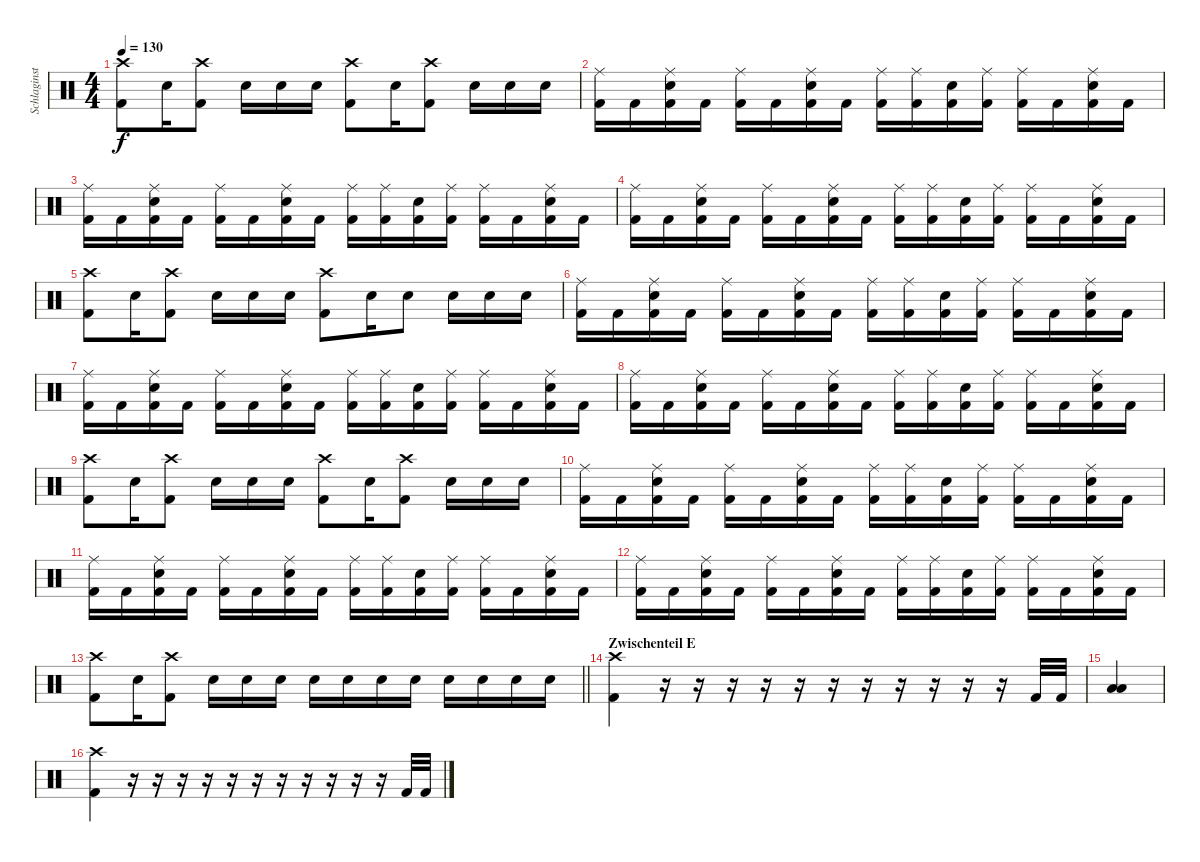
\track ("Schlaginstrumente - Auswahl" "Schlaginst") {instrument percussion}
\staff {score}
\articulation defaults
\ts (4 4)
\tempo 130
\clef neutral
\ks c
("Crash high (hit)" "Kick (hit) 2").8{dy f} "Snare (hit) 2".16 ("Crash high (hit)" "Kick (hit) 2").8 "Snare (hit) 2".16 "Snare (hit) 2".16 "Snare (hit) 2".16 ("Crash high (hit)" "Kick (hit) 2").8 "Snare (hit) 2".16 ("Crash high (hit)" "Kick (hit) 2").8 "Snare (hit) 2".16 "Snare (hit) 2".16 "Snare (hit) 2".16 |
("Ride (middle)" "Kick (hit) 2").16 "Kick (hit) 2".16 ("Ride (middle)" "Snare (hit) 2" "Kick (hit) 2").16 "Kick (hit) 2".16 ("Ride (middle)" "Kick (hit) 2").16 "Kick (hit) 2".16 ("Ride (middle)" "Snare (hit) 2" "Kick (hit) 2").16 "Kick (hit) 2".16 ("Ride (middle)" "Kick (hit) 2").16 ("Ride (middle)" "Kick (hit) 2").16 ("Snare (hit) 2" "Kick (hit) 2").16 ("Ride (middle)" "Kick (hit) 2").16 ("Ride (middle)" "Kick (hit) 2").16 "Kick (hit) 2".16 ("Ride (middle)" "Snare (hit) 2" "Kick (hit) 2").16 "Kick (hit) 2".16 |
("Ride (middle)" "Kick (hit) 2").16 "Kick (hit) 2".16 ("Ride (middle)" "Snare (hit) 2" "Kick (hit) 2").16 "Kick (hit) 2".16 ("Ride (middle)" "Kick (hit) 2").16 "Kick (hit) 2".16 ("Ride (middle)" "Snare (hit) 2" "Kick (hit) 2").16 "Kick (hit) 2".16 ("Ride (middle)" "Kick (hit) 2").16 ("Ride (middle)" "Kick (hit) 2").16 ("Snare (hit) 2" "Kick (hit) 2").16 ("Ride (middle)" "Kick (hit) 2").16 ("Ride (middle)" "Kick (hit) 2").16 "Kick (hit) 2".16 ("Ride (middle)" "Snare (hit) 2" "Kick (hit) 2").16 "Kick (hit) 2".16 |
("Ride (middle)" "Kick (hit) 2").16 "Kick (hit) 2".16 ("Ride (middle)" "Snare (hit) 2" "Kick (hit) 2").16 "Kick (hit) 2".16 ("Ride (middle)" "Kick (hit) 2").16 "Kick (hit) 2".16 ("Ride (middle)" "Snare (hit) 2" "Kick (hit) 2").16 "Kick (hit) 2".16 ("Ride (middle)" "Kick (hit) 2").16 ("Ride (middle)" "Kick (hit) 2").16 ("Snare (hit) 2" "Kick (hit) 2").16 ("Ride (middle)" "Kick (hit) 2").16 ("Ride (middle)" "Kick (hit) 2").16 "Kick (hit) 2".16 ("Ride (middle)" "Snare (hit) 2" "Kick (hit) 2").16 "Kick (hit) 2".16 |
("Crash high (hit)" "Kick (hit) 2").8 "Snare (hit) 2".16 ("Crash high (hit)" "Kick (hit) 2").8 "Snare (hit) 2".16 "Snare (hit) 2".16 "Snare (hit) 2".16 ("Crash high (hit)" "Kick (hit) 2").8 "Snare (hit) 2".16 "Snare (hit) 2".8 "Snare (hit) 2".16 "Snare (hit) 2".16 "Snare (hit) 2".16 |
("Ride (middle)" "Kick (hit) 2").16 "Kick (hit) 2".16 ("Ride (middle)" "Snare (hit) 2" "Kick (hit) 2").16 "Kick (hit) 2".16 ("Ride (middle)" "Kick (hit) 2").16 "Kick (hit) 2".16 ("Ride (middle)" "Snare (hit) 2" "Kick (hit) 2").16 "Kick (hit) 2".16 ("Ride (middle)" "Kick (hit) 2").16 ("Ride (middle)" "Kick (hit) 2").16 ("Snare (hit) 2" "Kick (hit) 2").16 ("Ride (middle)" "Kick (hit) 2").16 ("Ride (middle)" "Kick (hit) 2").16 "Kick (hit) 2".16 ("Ride (middle)" "Snare (hit) 2" "Kick (hit) 2").16 "Kick (hit) 2".16 |
("Ride (middle)" "Kick (hit) 2").16 "Kick (hit) 2".16 ("Ride (middle)" "Snare (hit) 2" "Kick (hit) 2").16 "Kick (hit) 2".16 ("Ride (middle)" "Kick (hit) 2").16 "Kick (hit) 2".16 ("Ride (middle)" "Snare (hit) 2" "Kick (hit) 2").16 "Kick (hit) 2".16 ("Ride (middle)" "Kick (hit) 2").16 ("Ride (middle)" "Kick (hit) 2").16 ("Snare (hit) 2" "Kick (hit) 2").16 ("Ride (middle)" "Kick (hit) 2").16 ("Ride (middle)" "Kick (hit) 2").16 "Kick (hit) 2".16 ("Ride (middle)" "Snare (hit) 2" "Kick (hit) 2").16 "Kick (hit) 2".16 |
("Ride (middle)" "Kick (hit) 2").16 "Kick (hit) 2".16 ("Ride (middle)" "Snare (hit) 2" "Kick (hit) 2").16 "Kick (hit) 2".16 ("Ride (middle)" "Kick (hit) 2").16 "Kick (hit) 2".16 ("Ride (middle)" "Snare (hit) 2" "Kick (hit) 2").16 "Kick (hit) 2".16 ("Ride (middle)" "Kick (hit) 2").16 ("Ride (middle)" "Kick (hit) 2").16 ("Snare (hit) 2" "Kick (hit) 2").16 ("Ride (middle)" "Kick (hit) 2").16 ("Ride (middle)" "Kick (hit) 2").16 "Kick (hit) 2".16 ("Ride (middle)" "Snare (hit) 2" "Kick (hit) 2").16 "Kick (hit) 2".16 |
("Crash high (hit)" "Kick (hit) 2").8 "Snare (hit) 2".16 ("Crash high (hit)" "Kick (hit) 2").8 "Snare (hit) 2".16 "Snare (hit) 2".16 "Snare (hit) 2".16 ("Crash high (hit)" "Kick (hit) 2").8 "Snare (hit) 2".16 ("Crash high (hit)" "Kick (hit) 2").8 "Snare (hit) 2".16 "Snare (hit) 2".16 "Snare (hit) 2".16 |
("Ride (middle)" "Kick (hit) 2").16 "Kick (hit) 2".16 ("Ride (middle)" "Snare (hit) 2" "Kick (hit) 2").16 "Kick (hit) 2".16 ("Ride (middle)" "Kick (hit) 2").16 "Kick (hit) 2".16 ("Ride (middle)" "Snare (hit) 2" "Kick (hit) 2").16 "Kick (hit) 2".16 ("Ride (middle)" "Kick (hit) 2").16 ("Ride (middle)" "Kick (hit) 2").16 ("Snare (hit) 2" "Kick (hit) 2").16 ("Ride (middle)" "Kick (hit) 2").16 ("Ride (middle)" "Kick (hit) 2").16 "Kick (hit) 2".16 ("Ride (middle)" "Snare (hit) 2" "Kick (hit) 2").16 "Kick (hit) 2".16 |
("Ride (middle)" "Kick (hit) 2").16 "Kick (hit) 2".16 ("Ride (middle)" "Snare (hit) 2" "Kick (hit) 2").16 "Kick (hit) 2".16 ("Ride (middle)" "Kick (hit) 2").16 "Kick (hit) 2".16 ("Ride (middle)" "Snare (hit) 2" "Kick (hit) 2").16 "Kick (hit) 2".16 ("Ride (middle)" "Kick (hit) 2").16 ("Ride (middle)" "Kick (hit) 2").16 ("Snare (hit) 2" "Kick (hit) 2").16 ("Ride (middle)" "Kick (hit) 2").16 ("Ride (middle)" "Kick (hit) 2").16 "Kick (hit) 2".16 ("Ride (middle)" "Snare (hit) 2" "Kick (hit) 2").16 "Kick (hit) 2".16 |
("Ride (middle)" "Kick (hit) 2").16 "Kick (hit) 2".16 ("Ride (middle)" "Snare (hit) 2" "Kick (hit) 2").16 "Kick (hit) 2".16 ("Ride (middle)" "Kick (hit) 2").16 "Kick (hit) 2".16 ("Ride (middle)" "Snare (hit) 2" "Kick (hit) 2").16 "Kick (hit) 2".16 ("Ride (middle)" "Kick (hit) 2").16 ("Ride (middle)" "Kick (hit) 2").16 ("Snare (hit) 2" "Kick (hit) 2").16 ("Ride (middle)" "Kick (hit) 2").16 ("Ride (middle)" "Kick (hit) 2").16 "Kick (hit) 2".16 ("Ride (middle)" "Snare (hit) 2" "Kick (hit) 2").16 "Kick (hit) 2".16 |
\barLineRight lightlight
("Crash high (hit)" "Kick (hit) 2").8 "Snare (hit) 2".16 ("Crash high (hit)" "Kick (hit) 2").8 "Snare (hit) 2".16 "Snare (hit) 2".16 "Snare (hit) 2".16 "Snare (hit) 2".16 "Snare (hit) 2".16 "Snare (hit) 2".16 "Snare (hit) 2".16 "Snare (hit) 2".16 "Snare (hit) 2".16 "Snare (hit) 2".16 "Snare (hit) 2".16 |
\section ("" "Zwischenteil E")
("Crash high (hit)" "Kick (hit) 2").4 r.16 r.16 r.16 r.16 r.16 r.16 r.16 r.16 r.16 r.16 r.16 "Kick (hit) 2".32 "Kick (hit) 2".32 |
("Low Tom (hit)" "Low Floor Tom (hit)").4 |
("Crash high (hit)" "Kick (hit) 2").4 r.16 r.16 r.16 r.16 r.16 r.16 r.16 r.16 r.16 r.16 r.16 "Kick (hit) 2".32 "Kick (hit) 2".32
